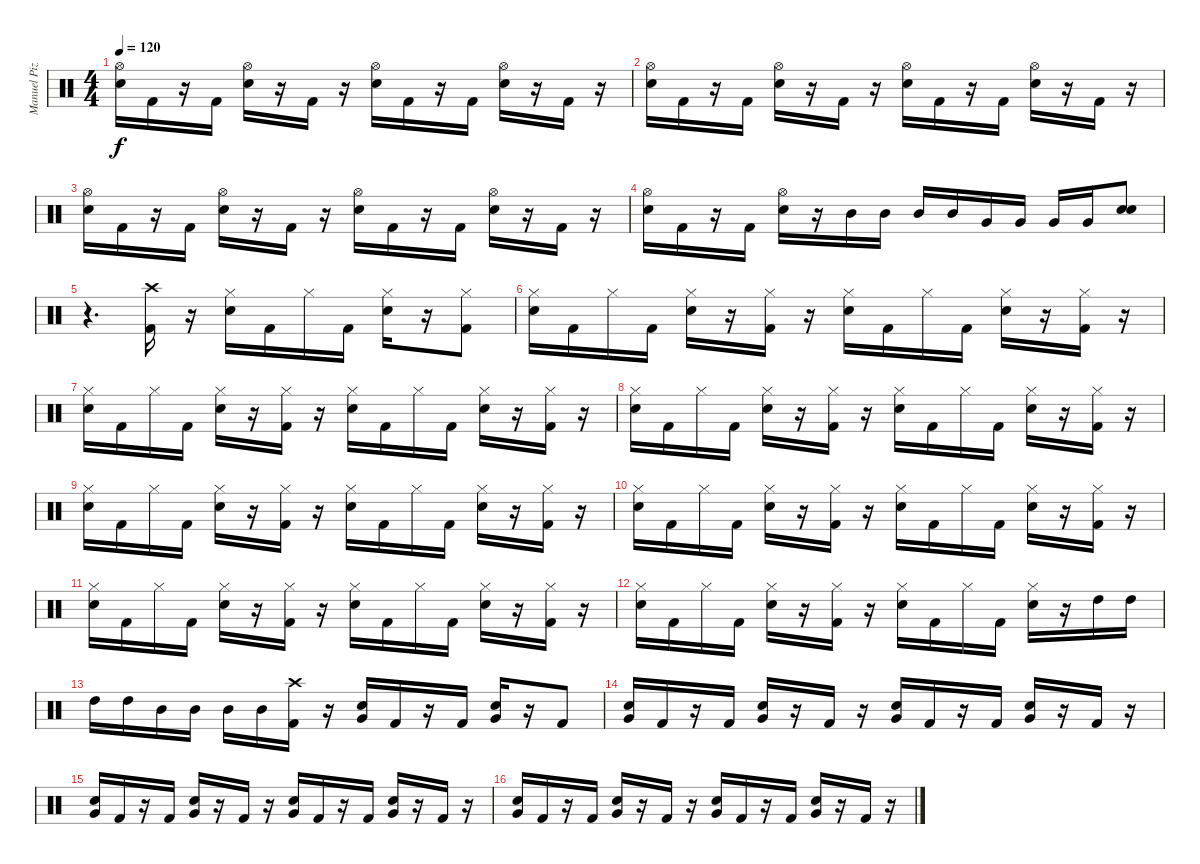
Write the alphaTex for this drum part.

\track ("Manuel Pizarro" "Manuel Piz") {instrument percussion}
\staff {score}
\articulation defaults
\ts (4 4)
\tempo 120
\clef neutral
\ks c
("Electric Snare (hit)" "Hi-Hat (open)").16{dy f} "Kick (hit) 2".16 r.16 "Kick (hit) 2".16 ("Electric Snare (hit)" "Hi-Hat (open)").16 r.16 "Kick (hit) 2".16 r.16 ("Electric Snare (hit)" "Hi-Hat (open)").16 "Kick (hit) 2".16 r.16 "Kick (hit) 2".16 ("Electric Snare (hit)" "Hi-Hat (open)").16 r.16 "Kick (hit) 2".16 r.16 |
("Electric Snare (hit)" "Hi-Hat (open)").16 "Kick (hit) 2".16 r.16 "Kick (hit) 2".16 ("Electric Snare (hit)" "Hi-Hat (open)").16 r.16 "Kick (hit) 2".16 r.16 ("Electric Snare (hit)" "Hi-Hat (open)").16 "Kick (hit) 2".16 r.16 "Kick (hit) 2".16 ("Electric Snare (hit)" "Hi-Hat (open)").16 r.16 "Kick (hit) 2".16 r.16 |
("Electric Snare (hit)" "Hi-Hat (open)").16 "Kick (hit) 2".16 r.16 "Kick (hit) 2".16 ("Electric Snare (hit)" "Hi-Hat (open)").16 r.16 "Kick (hit) 2".16 r.16 ("Electric Snare (hit)" "Hi-Hat (open)").16 "Kick (hit) 2".16 r.16 "Kick (hit) 2".16 ("Electric Snare (hit)" "Hi-Hat (open)").16 r.16 "Kick (hit) 2".16 r.16 |
("Electric Snare (hit)" "Hi-Hat (open)").16 "Kick (hit) 2".16 r.16 "Kick (hit) 2".16 ("Electric Snare (hit)" "Hi-Hat (open)").16 r.16 "Mid Tom (hit)".16 "Mid Tom (hit)".16 "Mid Tom (hit)".16 "Mid Tom (hit)".16 "Very Low Tom (hit)".16 "Very Low Tom (hit)".16 "Very Low Tom (hit)".16 "Very Low Tom (hit)".16 ("Electric Snare (hit)" "Electric Snare (hit)").8 |
r.4{d} ("Kick (hit) 2" "Crash high (hit)").16 r.16 ("Electric Snare (hit)" "Hi-Hat (closed)").16 "Kick (hit) 2".16 "Hi-Hat (closed)".16 "Kick (hit) 2".16 ("Electric Snare (hit)" "Hi-Hat (closed)").16 r.16 ("Kick (hit) 2" "Hi-Hat (closed)").8 |
("Electric Snare (hit)" "Hi-Hat (closed)").16 "Kick (hit) 2".16 "Hi-Hat (closed)".16 "Kick (hit) 2".16 ("Electric Snare (hit)" "Hi-Hat (closed)").16 r.16 ("Kick (hit) 2" "Hi-Hat (closed)").16 r.16 ("Electric Snare (hit)" "Hi-Hat (closed)").16 "Kick (hit) 2".16 "Hi-Hat (closed)".16 "Kick (hit) 2".16 ("Electric Snare (hit)" "Hi-Hat (closed)").16 r.16 ("Kick (hit) 2" "Hi-Hat (closed)").16 r.16 |
("Electric Snare (hit)" "Hi-Hat (closed)").16 "Kick (hit) 2".16 "Hi-Hat (closed)".16 "Kick (hit) 2".16 ("Electric Snare (hit)" "Hi-Hat (closed)").16 r.16 ("Kick (hit) 2" "Hi-Hat (closed)").16 r.16 ("Electric Snare (hit)" "Hi-Hat (closed)").16 "Kick (hit) 2".16 "Hi-Hat (closed)".16 "Kick (hit) 2".16 ("Electric Snare (hit)" "Hi-Hat (closed)").16 r.16 ("Kick (hit) 2" "Hi-Hat (closed)").16 r.16 |
("Electric Snare (hit)" "Hi-Hat (closed)").16 "Kick (hit) 2".16 "Hi-Hat (closed)".16 "Kick (hit) 2".16 ("Electric Snare (hit)" "Hi-Hat (closed)").16 r.16 ("Kick (hit) 2" "Hi-Hat (closed)").16 r.16 ("Electric Snare (hit)" "Hi-Hat (closed)").16 "Kick (hit) 2".16 "Hi-Hat (closed)".16 "Kick (hit) 2".16 ("Electric Snare (hit)" "Hi-Hat (closed)").16 r.16 ("Kick (hit) 2" "Hi-Hat (closed)").16 r.16 |
("Electric Snare (hit)" "Hi-Hat (closed)").16 "Kick (hit) 2".16 "Hi-Hat (closed)".16 "Kick (hit) 2".16 ("Electric Snare (hit)" "Hi-Hat (closed)").16 r.16 ("Kick (hit) 2" "Hi-Hat (closed)").16 r.16 ("Electric Snare (hit)" "Hi-Hat (closed)").16 "Kick (hit) 2".16 "Hi-Hat (closed)".16 "Kick (hit) 2".16 ("Electric Snare (hit)" "Hi-Hat (closed)").16 r.16 ("Kick (hit) 2" "Hi-Hat (closed)").16 r.16 |
("Electric Snare (hit)" "Hi-Hat (closed)").16 "Kick (hit) 2".16 "Hi-Hat (closed)".16 "Kick (hit) 2".16 ("Electric Snare (hit)" "Hi-Hat (closed)").16 r.16 ("Kick (hit) 2" "Hi-Hat (closed)").16 r.16 ("Electric Snare (hit)" "Hi-Hat (closed)").16 "Kick (hit) 2".16 "Hi-Hat (closed)".16 "Kick (hit) 2".16 ("Electric Snare (hit)" "Hi-Hat (closed)").16 r.16 ("Kick (hit) 2" "Hi-Hat (closed)").16 r.16 |
("Electric Snare (hit)" "Hi-Hat (closed)").16 "Kick (hit) 2".16 "Hi-Hat (closed)".16 "Kick (hit) 2".16 ("Electric Snare (hit)" "Hi-Hat (closed)").16 r.16 ("Kick (hit) 2" "Hi-Hat (closed)").16 r.16 ("Electric Snare (hit)" "Hi-Hat (closed)").16 "Kick (hit) 2".16 "Hi-Hat (closed)".16 "Kick (hit) 2".16 ("Electric Snare (hit)" "Hi-Hat (closed)").16 r.16 ("Kick (hit) 2" "Hi-Hat (closed)").16 r.16 |
("Electric Snare (hit)" "Hi-Hat (closed)").16 "Kick (hit) 2".16 "Hi-Hat (closed)".16 "Kick (hit) 2".16 ("Electric Snare (hit)" "Hi-Hat (closed)").16 r.16 ("Kick (hit) 2" "Hi-Hat (closed)").16 r.16 ("Electric Snare (hit)" "Hi-Hat (closed)").16 "Kick (hit) 2".16 "Hi-Hat (closed)".16 "Kick (hit) 2".16 ("Electric Snare (hit)" "Hi-Hat (closed)").16 r.16 "High Tom (hit)".16 "High Tom (hit)".16 |
"High Tom (hit)".16 "High Tom (hit)".16 "Mid Tom (hit)".16 "Mid Tom (hit)".16 "Mid Tom (hit)".16 "Mid Tom (hit)".16 ("Kick (hit) 2" "Crash high (hit)").16 r.16 ("Electric Snare (hit)" "Very Low Tom (hit)").16 "Kick (hit) 2".16 r.16 "Kick (hit) 2".16 ("Electric Snare (hit)" "Very Low Tom (hit)").16 r.16 "Kick (hit) 2".8 |
("Electric Snare (hit)" "Very Low Tom (hit)").16 "Kick (hit) 2".16 r.16 "Kick (hit) 2".16 ("Electric Snare (hit)" "Very Low Tom (hit)").16 r.16 "Kick (hit) 2".16 r.16 ("Electric Snare (hit)" "Very Low Tom (hit)").16 "Kick (hit) 2".16 r.16 "Kick (hit) 2".16 ("Electric Snare (hit)" "Very Low Tom (hit)").16 r.16 "Kick (hit) 2".16 r.16 |
("Electric Snare (hit)" "Very Low Tom (hit)").16 "Kick (hit) 2".16 r.16 "Kick (hit) 2".16 ("Electric Snare (hit)" "Very Low Tom (hit)").16 r.16 "Kick (hit) 2".16 r.16 ("Electric Snare (hit)" "Very Low Tom (hit)").16 "Kick (hit) 2".16 r.16 "Kick (hit) 2".16 ("Electric Snare (hit)" "Very Low Tom (hit)").16 r.16 "Kick (hit) 2".16 r.16 |
("Electric Snare (hit)" "Very Low Tom (hit)").16 "Kick (hit) 2".16 r.16 "Kick (hit) 2".16 ("Electric Snare (hit)" "Very Low Tom (hit)").16 r.16 "Kick (hit) 2".16 r.16 ("Electric Snare (hit)" "Very Low Tom (hit)").16 "Kick (hit) 2".16 r.16 "Kick (hit) 2".16 ("Electric Snare (hit)" "Very Low Tom (hit)").16 r.16 "Kick (hit) 2".16 r.16
